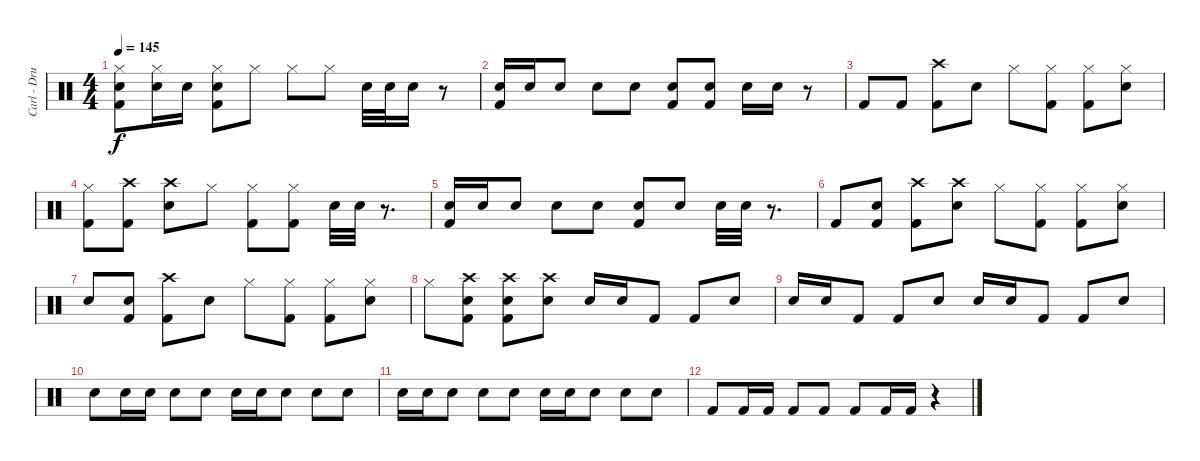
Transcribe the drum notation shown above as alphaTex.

\track ("Carl - Drums" "Carl - Dru") {instrument percussion}
\staff {score}
\articulation defaults
\ts (4 4)
\tempo 145
\clef neutral
\ks c
("Hi-Hat (closed)" "Electric Snare (hit)" "Kick (hit) 2").8{dy f} ("Hi-Hat (closed)" "Electric Snare (hit)").16 "Electric Snare (hit)".16 ("Hi-Hat (closed)" "Electric Snare (hit)" "Kick (hit) 2").8 "Hi-Hat (closed)".8 "Hi-Hat (closed)".8 "Hi-Hat (closed)".8 "Electric Snare (hit)".32 "Electric Snare (hit)".32 "Electric Snare (hit)".16 r.8 |
("Electric Snare (hit)" "Kick (hit) 2").16 "Electric Snare (hit)".16 "Electric Snare (hit)".8 "Electric Snare (hit)".8 "Electric Snare (hit)".8 ("Electric Snare (hit)" "Kick (hit) 2").8 ("Electric Snare (hit)" "Kick (hit) 2").8 "Electric Snare (hit)".16 "Electric Snare (hit)".16 r.8 |
"Kick (hit) 2".8 "Kick (hit) 2".8 ("Crash high (hit)" "Kick (hit) 2").8 "Electric Snare (hit)".8 "Hi-Hat (closed)".8 ("Hi-Hat (closed)" "Kick (hit) 2").8 ("Hi-Hat (closed)" "Kick (hit) 2").8 ("Electric Snare (hit)" "Hi-Hat (closed)").8 |
("Hi-Hat (closed)" "Kick (hit) 2").8 ("Crash high (hit)" "Kick (hit) 2").8 ("Electric Snare (hit)" "Crash high (hit)").8 "Hi-Hat (closed)".8 ("Hi-Hat (closed)" "Kick (hit) 2").8 ("Hi-Hat (closed)" "Kick (hit) 2").8 "Electric Snare (hit)".32 "Electric Snare (hit)".32 r.8{d} |
("Electric Snare (hit)" "Kick (hit) 2").16 "Electric Snare (hit)".16 "Electric Snare (hit)".8 "Electric Snare (hit)".8 "Electric Snare (hit)".8 ("Electric Snare (hit)" "Kick (hit) 2").8 "Electric Snare (hit)".8 "Electric Snare (hit)".32 "Electric Snare (hit)".32 r.8{d} |
"Kick (hit) 2".8 ("Electric Snare (hit)" "Kick (hit) 2").8 ("Crash high (hit)" "Kick (hit) 2").8 ("Electric Snare (hit)" "Crash high (hit)").8 "Hi-Hat (closed)".8 ("Hi-Hat (closed)" "Kick (hit) 2").8 ("Hi-Hat (closed)" "Kick (hit) 2").8 ("Electric Snare (hit)" "Hi-Hat (closed)").8 |
"Electric Snare (hit)".8 ("Electric Snare (hit)" "Kick (hit) 2").8 ("Crash high (hit)" "Kick (hit) 2").8 "Electric Snare (hit)".8 "Hi-Hat (closed)".8 ("Hi-Hat (closed)" "Kick (hit) 2").8 ("Hi-Hat (closed)" "Kick (hit) 2").8 ("Electric Snare (hit)" "Hi-Hat (closed)").8 |
"Hi-Hat (closed)".8 ("Electric Snare (hit)" "Kick (hit) 2" "Crash high (hit)").8 ("Electric Snare (hit)" "Kick (hit) 2" "Crash high (hit)").8 ("Electric Snare (hit)" "Crash high (hit)").8 "Electric Snare (hit)".16 "Electric Snare (hit)".16 "Kick (hit) 2".8 "Kick (hit) 2".8 "Electric Snare (hit)".8 |
"Electric Snare (hit)".16 "Electric Snare (hit)".16 "Kick (hit) 2".8 "Kick (hit) 2".8 "Electric Snare (hit)".8 "Electric Snare (hit)".16 "Electric Snare (hit)".16 "Kick (hit) 2".8 "Kick (hit) 2".8 "Electric Snare (hit)".8 |
"Electric Snare (hit)".8 "Electric Snare (hit)".16 "Electric Snare (hit)".16 "Electric Snare (hit)".8 "Electric Snare (hit)".8 "Electric Snare (hit)".16 "Electric Snare (hit)".16 "Electric Snare (hit)".8 "Electric Snare (hit)".8 "Electric Snare (hit)".8 |
"Electric Snare (hit)".16 "Electric Snare (hit)".16 "Electric Snare (hit)".8 "Electric Snare (hit)".8 "Electric Snare (hit)".8 "Electric Snare (hit)".16 "Electric Snare (hit)".16 "Electric Snare (hit)".8 "Electric Snare (hit)".8 "Electric Snare (hit)".8 |
"Kick (hit) 2".8 "Kick (hit) 2".16 "Kick (hit) 2".16 "Kick (hit) 2".8 "Kick (hit) 2".8 "Kick (hit) 2".8 "Kick (hit) 2".16 "Kick (hit) 2".16 r.4
